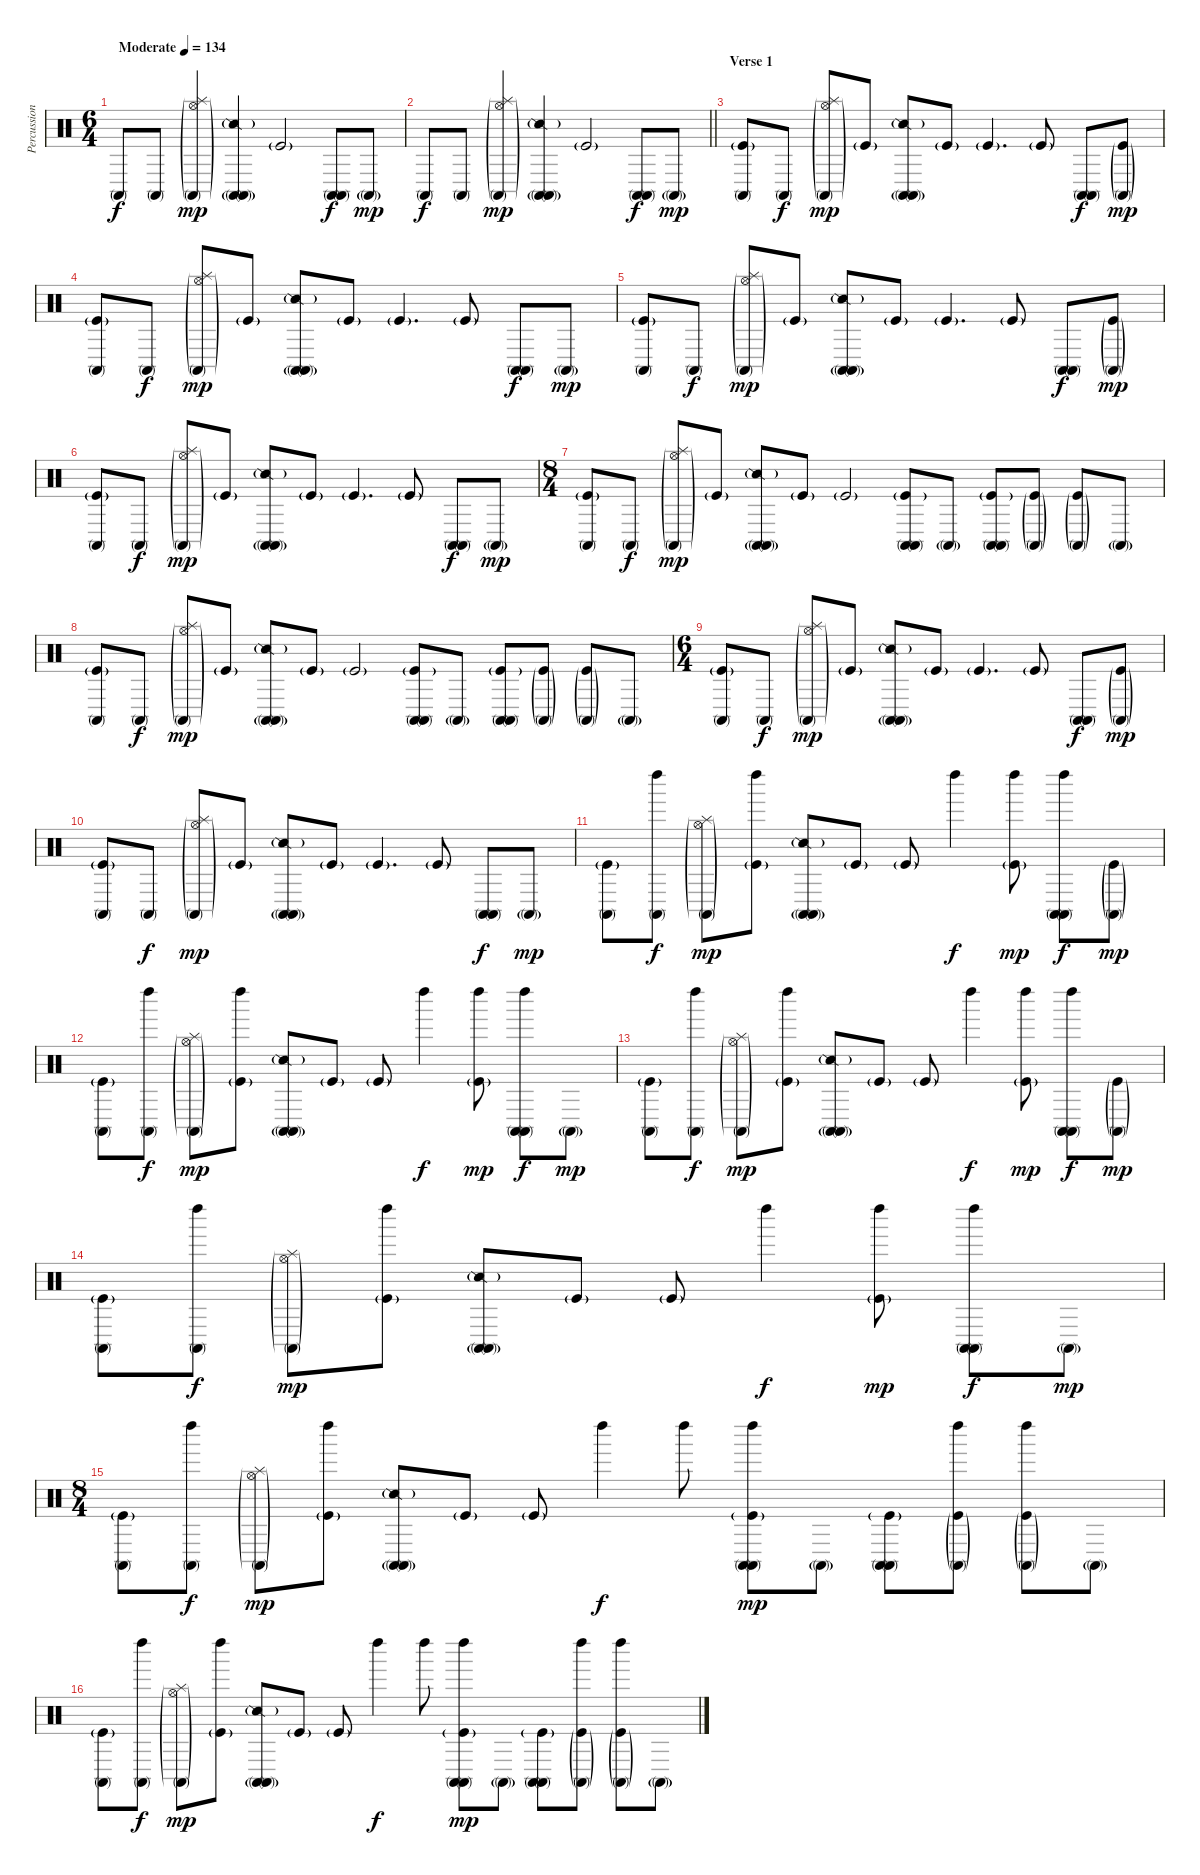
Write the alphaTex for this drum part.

\track ("Percussions" "Percussion") {instrument percussion}
\staff {score}
\articulation defaults
\ts (6 4)
\tempo (134 "Moderate")
\clef neutral
\ks c "Conga high (mute)".8{dy f} "Conga high (mute)".8
("Splash (hit)"{g} "Hi-Hat (open)"{g} "Conga high (mute)"{g}).4{dy mp} ("Snare (side stick) 2"{g} "Conga high (mute)" "Conga high (mute)"{g}).4 "Kick (hit)"{g}.2 ("Conga high (mute)" "Conga high (mute)").8{dy f} "Conga high (mute)"{g}.8{dy mp} |
\barLineRight lightlight "Conga high (mute)".8{dy f} "Conga high (mute)".8
("Splash (hit)"{g} "Hi-Hat (open)"{g} "Conga high (mute)"{g}).4{dy mp} ("Snare (side stick) 2"{g} "Conga high (mute)" "Conga high (mute)"{g}).4 "Kick (hit)"{g}.2 ("Conga high (mute)" "Conga high (mute)").8{dy f} "Conga high (mute)"{g}.8{dy mp} |
\section ("" "Verse 1")
("Conga high (mute)" "Kick (hit)"{g}).8 "Conga high (mute)".8{dy f} ("Splash (hit)"{g} "Hi-Hat (open)"{g} "Conga high (mute)"{g}).8{dy mp} "Kick (hit)"{g}.8 ("Snare (side stick) 2"{g} "Conga high (mute)" "Conga high (mute)"{g}).8 "Kick (hit)"{g}.8 "Kick (hit)"{g}.4{d} "Kick (hit)"{g}.8 ("Conga high (mute)" "Conga high (mute)").8{dy f} ("Conga high (mute)"{g} "Kick (hit)"{g}).8{dy mp} |
("Conga high (mute)" "Kick (hit)"{g}).8 "Conga high (mute)".8{dy f} ("Splash (hit)"{g} "Hi-Hat (open)"{g} "Conga high (mute)"{g}).8{dy mp} "Kick (hit)"{g}.8 ("Snare (side stick) 2"{g} "Conga high (mute)" "Conga high (mute)"{g}).8 "Kick (hit)"{g}.8 "Kick (hit)"{g}.4{d} "Kick (hit)"{g}.8 ("Conga high (mute)" "Conga high (mute)").8{dy f} "Conga high (mute)"{g}.8{dy mp} |
("Conga high (mute)" "Kick (hit)"{g}).8 "Conga high (mute)".8{dy f} ("Splash (hit)"{g} "Hi-Hat (open)"{g} "Conga high (mute)"{g}).8{dy mp} "Kick (hit)"{g}.8 ("Snare (side stick) 2"{g} "Conga high (mute)" "Conga high (mute)"{g}).8 "Kick (hit)"{g}.8 "Kick (hit)"{g}.4{d} "Kick (hit)"{g}.8 ("Conga high (mute)" "Conga high (mute)").8{dy f} ("Conga high (mute)"{g} "Kick (hit)"{g}).8{dy mp} |
("Conga high (mute)" "Kick (hit)"{g}).8 "Conga high (mute)".8{dy f} ("Splash (hit)"{g} "Hi-Hat (open)"{g} "Conga high (mute)"{g}).8{dy mp} "Kick (hit)"{g}.8 ("Snare (side stick) 2"{g} "Conga high (mute)" "Conga high (mute)"{g}).8 "Kick (hit)"{g}.8 "Kick (hit)"{g}.4{d} "Kick (hit)"{g}.8 ("Conga high (mute)" "Conga high (mute)").8{dy f} "Conga high (mute)"{g}.8{dy mp} |
\ts (8 4)
("Conga high (mute)" "Kick (hit)"{g}).8 "Conga high (mute)".8{dy f} ("Splash (hit)"{g} "Hi-Hat (open)"{g} "Conga high (mute)"{g}).8{dy mp} "Kick (hit)"{g}.8 ("Snare (side stick) 2"{g} "Conga high (mute)" "Conga high (mute)"{g}).8 "Kick (hit)"{g}.8 "Kick (hit)"{g}.2 ("Conga high (mute)" "Conga high (mute)" "Kick (hit)"{g}).8 "Conga high (mute)"{g}.8 ("Conga high (mute)" "Conga high (mute)" "Kick (hit)"{g}).8 ("Conga high (mute)"{g} "Kick (hit)"{g}).8 ("Conga high (mute)"{g} "Kick (hit)"{g}).8 "Conga high (mute)"{g}.8 |
("Conga high (mute)" "Kick (hit)"{g}).8 "Conga high (mute)".8{dy f} ("Splash (hit)"{g} "Hi-Hat (open)"{g} "Conga high (mute)"{g}).8{dy mp} "Kick (hit)"{g}.8 ("Snare (side stick) 2"{g} "Conga high (mute)" "Conga high (mute)"{g}).8 "Kick (hit)"{g}.8 "Kick (hit)"{g}.2 ("Conga high (mute)" "Conga high (mute)" "Kick (hit)"{g}).8 "Conga high (mute)"{g}.8 ("Conga high (mute)" "Conga high (mute)" "Kick (hit)"{g}).8 ("Conga high (mute)"{g} "Kick (hit)"{g}).8 ("Conga high (mute)"{g} "Kick (hit)"{g}).8 "Conga high (mute)"{g}.8 |
\ts (6 4)
("Conga high (mute)" "Kick (hit)"{g}).8 "Conga high (mute)".8{dy f} ("Splash (hit)"{g} "Hi-Hat (open)"{g} "Conga high (mute)"{g}).8{dy mp} "Kick (hit)"{g}.8 ("Snare (side stick) 2"{g} "Conga high (mute)" "Conga high (mute)"{g}).8 "Kick (hit)"{g}.8 "Kick (hit)"{g}.4{d} "Kick (hit)"{g}.8 ("Conga high (mute)" "Conga high (mute)").8{dy f} ("Conga high (mute)"{g} "Kick (hit)"{g}).8{dy mp} |
("Conga high (mute)" "Kick (hit)"{g}).8 "Conga high (mute)".8{dy f} ("Splash (hit)"{g} "Hi-Hat (open)"{g} "Conga high (mute)"{g}).8{dy mp} "Kick (hit)"{g}.8 ("Snare (side stick) 2"{g} "Conga high (mute)" "Conga high (mute)"{g}).8 "Kick (hit)"{g}.8 "Kick (hit)"{g}.4{d} "Kick (hit)"{g}.8 ("Conga high (mute)" "Conga high (mute)").8{dy f} "Conga high (mute)"{g}.8{dy mp} |
("Conga high (mute)" "Kick (hit)"{g}).8 ("Conga high (mute)" "Left Maraca (hit)").8{dy f} ("Splash (hit)"{g} "Hi-Hat (open)"{g} "Conga high (mute)"{g}).8{dy mp} ("Kick (hit)"{g} "Left Maraca (hit)").8 ("Snare (side stick) 2"{g} "Conga high (mute)" "Conga high (mute)"{g}).8 "Kick (hit)"{g}.8 "Kick (hit)"{g}.8 "Left Maraca (hit)".4{dy f} ("Kick (hit)"{g} "Left Maraca (hit)").8{dy mp} ("Conga high (mute)" "Conga high (mute)" "Left Maraca (hit)").8{dy f} ("Conga high (mute)"{g} "Kick (hit)"{g}).8{dy mp} |
("Conga high (mute)" "Kick (hit)"{g}).8 ("Conga high (mute)" "Left Maraca (hit)").8{dy f} ("Splash (hit)"{g} "Hi-Hat (open)"{g} "Conga high (mute)"{g}).8{dy mp} ("Kick (hit)"{g} "Left Maraca (hit)").8 ("Snare (side stick) 2"{g} "Conga high (mute)" "Conga high (mute)"{g}).8 "Kick (hit)"{g}.8 "Kick (hit)"{g}.8 "Left Maraca (hit)".4{dy f} ("Kick (hit)"{g} "Left Maraca (hit)").8{dy mp} ("Conga high (mute)" "Conga high (mute)" "Left Maraca (hit)").8{dy f} "Conga high (mute)"{g}.8{dy mp} |
("Conga high (mute)" "Kick (hit)"{g}).8 ("Conga high (mute)" "Left Maraca (hit)").8{dy f} ("Splash (hit)"{g} "Hi-Hat (open)"{g} "Conga high (mute)"{g}).8{dy mp} ("Kick (hit)"{g} "Left Maraca (hit)").8 ("Snare (side stick) 2"{g} "Conga high (mute)" "Conga high (mute)"{g}).8 "Kick (hit)"{g}.8 "Kick (hit)"{g}.8 "Left Maraca (hit)".4{dy f} ("Kick (hit)"{g} "Left Maraca (hit)").8{dy mp} ("Conga high (mute)" "Conga high (mute)" "Left Maraca (hit)").8{dy f} ("Conga high (mute)"{g} "Kick (hit)"{g}).8{dy mp} |
("Conga high (mute)" "Kick (hit)"{g}).8 ("Conga high (mute)" "Left Maraca (hit)").8{dy f} ("Splash (hit)"{g} "Hi-Hat (open)"{g} "Conga high (mute)"{g}).8{dy mp} ("Kick (hit)"{g} "Left Maraca (hit)").8 ("Snare (side stick) 2"{g} "Conga high (mute)" "Conga high (mute)"{g}).8 "Kick (hit)"{g}.8 "Kick (hit)"{g}.8 "Left Maraca (hit)".4{dy f} ("Kick (hit)"{g} "Left Maraca (hit)").8{dy mp} ("Conga high (mute)" "Conga high (mute)" "Left Maraca (hit)").8{dy f} "Conga high (mute)"{g}.8{dy mp} |
\ts (8 4)
("Conga high (mute)" "Kick (hit)"{g}).8 ("Conga high (mute)" "Left Maraca (hit)").8{dy f} ("Splash (hit)"{g} "Hi-Hat (open)"{g} "Conga high (mute)"{g}).8{dy mp} ("Kick (hit)"{g} "Left Maraca (hit)").8 ("Snare (side stick) 2"{g} "Conga high (mute)" "Conga high (mute)"{g}).8 "Kick (hit)"{g}.8 "Kick (hit)"{g}.8 "Left Maraca (hit)".4{dy f} "Left Maraca (hit)".8 ("Conga high (mute)" "Conga high (mute)" "Kick (hit)"{g} "Left Maraca (hit)").8{dy mp} "Conga high (mute)"{g}.8 ("Conga high (mute)" "Conga high (mute)" "Kick (hit)"{g}).8 ("Conga high (mute)"{g} "Kick (hit)"{g} "Left Maraca (hit)").8 ("Conga high (mute)"{g} "Kick (hit)"{g} "Left Maraca (hit)").8 "Conga high (mute)"{g}.8 |
("Conga high (mute)" "Kick (hit)"{g}).8 ("Conga high (mute)" "Left Maraca (hit)").8{dy f} ("Splash (hit)"{g} "Hi-Hat (open)"{g} "Conga high (mute)"{g}).8{dy mp} ("Kick (hit)"{g} "Left Maraca (hit)").8 ("Snare (side stick) 2"{g} "Conga high (mute)" "Conga high (mute)"{g}).8 "Kick (hit)"{g}.8 "Kick (hit)"{g}.8 "Left Maraca (hit)".4{dy f} "Left Maraca (hit)".8 ("Conga high (mute)" "Conga high (mute)" "Kick (hit)"{g} "Left Maraca (hit)").8{dy mp} "Conga high (mute)"{g}.8 ("Conga high (mute)" "Conga high (mute)" "Kick (hit)"{g}).8 ("Conga high (mute)"{g} "Kick (hit)"{g} "Left Maraca (hit)").8 ("Conga high (mute)"{g} "Kick (hit)"{g} "Left Maraca (hit)").8 "Conga high (mute)"{g}.8
